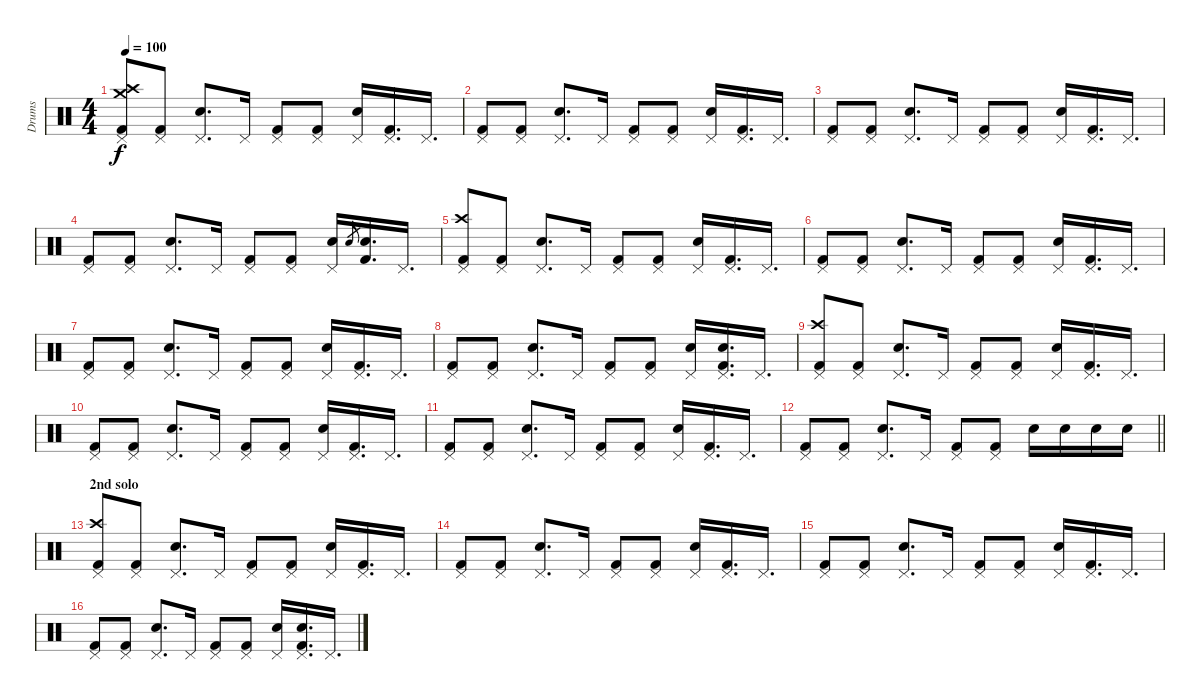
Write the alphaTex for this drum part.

\track ("Drums" "Drums") {instrument percussion}
\staff
\articulation defaults
\ts (4 4)
\tempo 100
\clef neutral
\ks c
("Pedal Hi-Hat (hit)" "Crash high (hit)" "Crash medium (hit)" "Kick (hit) 2").8{dy f} ("Pedal Hi-Hat (hit)" "Kick (hit) 2").8 ("Electric Snare (hit)" "Pedal Hi-Hat (hit)").8{d} "Pedal Hi-Hat (hit)".16 ("Pedal Hi-Hat (hit)" "Kick (hit) 2").8 ("Pedal Hi-Hat (hit)" "Kick (hit) 2").8 ("Electric Snare (hit)" "Pedal Hi-Hat (hit)").16 ("Pedal Hi-Hat (hit)" "Kick (hit) 2").16{d} "Pedal Hi-Hat (hit)".16{d} |
("Pedal Hi-Hat (hit)" "Kick (hit) 2").8 ("Pedal Hi-Hat (hit)" "Kick (hit) 2").8 ("Electric Snare (hit)" "Pedal Hi-Hat (hit)").8{d} "Pedal Hi-Hat (hit)".16 ("Pedal Hi-Hat (hit)" "Kick (hit) 2").8 ("Pedal Hi-Hat (hit)" "Kick (hit) 2").8 ("Electric Snare (hit)" "Pedal Hi-Hat (hit)").16 ("Pedal Hi-Hat (hit)" "Kick (hit) 2").16{d} "Pedal Hi-Hat (hit)".16{d} |
("Pedal Hi-Hat (hit)" "Kick (hit) 2").8 ("Pedal Hi-Hat (hit)" "Kick (hit) 2").8 ("Electric Snare (hit)" "Pedal Hi-Hat (hit)").8{d} "Pedal Hi-Hat (hit)".16 ("Pedal Hi-Hat (hit)" "Kick (hit) 2").8 ("Pedal Hi-Hat (hit)" "Kick (hit) 2").8 ("Electric Snare (hit)" "Pedal Hi-Hat (hit)").16 ("Pedal Hi-Hat (hit)" "Kick (hit) 2").16{d} "Pedal Hi-Hat (hit)".16{d} |
("Pedal Hi-Hat (hit)" "Kick (hit) 2").8 ("Pedal Hi-Hat (hit)" "Kick (hit) 2").8 ("Electric Snare (hit)" "Pedal Hi-Hat (hit)").8{d} "Pedal Hi-Hat (hit)".16 ("Pedal Hi-Hat (hit)" "Kick (hit) 2").8 ("Pedal Hi-Hat (hit)" "Kick (hit) 2").8 ("Electric Snare (hit)" "Pedal Hi-Hat (hit)").16 "Electric Snare (hit)".8{gr} ("Electric Snare (hit)" "Kick (hit) 2").16{d} "Pedal Hi-Hat (hit)".16{d} |
("Pedal Hi-Hat (hit)" "Crash high (hit)" "Kick (hit) 2").8 ("Pedal Hi-Hat (hit)" "Kick (hit) 2").8 ("Electric Snare (hit)" "Pedal Hi-Hat (hit)").8{d} "Pedal Hi-Hat (hit)".16 ("Pedal Hi-Hat (hit)" "Kick (hit) 2").8 ("Pedal Hi-Hat (hit)" "Kick (hit) 2").8 ("Electric Snare (hit)" "Pedal Hi-Hat (hit)").16 ("Pedal Hi-Hat (hit)" "Kick (hit) 2").16{d} "Pedal Hi-Hat (hit)".16{d} |
("Pedal Hi-Hat (hit)" "Kick (hit) 2").8 ("Pedal Hi-Hat (hit)" "Kick (hit) 2").8 ("Electric Snare (hit)" "Pedal Hi-Hat (hit)").8{d} "Pedal Hi-Hat (hit)".16 ("Pedal Hi-Hat (hit)" "Kick (hit) 2").8 ("Pedal Hi-Hat (hit)" "Kick (hit) 2").8 ("Electric Snare (hit)" "Pedal Hi-Hat (hit)").16 ("Pedal Hi-Hat (hit)" "Kick (hit) 2").16{d} "Pedal Hi-Hat (hit)".16{d} |
("Pedal Hi-Hat (hit)" "Kick (hit) 2").8 ("Pedal Hi-Hat (hit)" "Kick (hit) 2").8 ("Electric Snare (hit)" "Pedal Hi-Hat (hit)").8{d} "Pedal Hi-Hat (hit)".16 ("Pedal Hi-Hat (hit)" "Kick (hit) 2").8 ("Pedal Hi-Hat (hit)" "Kick (hit) 2").8 ("Electric Snare (hit)" "Pedal Hi-Hat (hit)").16 ("Pedal Hi-Hat (hit)" "Kick (hit) 2").16{d} "Pedal Hi-Hat (hit)".16{d} |
("Pedal Hi-Hat (hit)" "Kick (hit) 2").8 ("Pedal Hi-Hat (hit)" "Kick (hit) 2").8 ("Electric Snare (hit)" "Pedal Hi-Hat (hit)").8{d} "Pedal Hi-Hat (hit)".16 ("Pedal Hi-Hat (hit)" "Kick (hit) 2").8 ("Pedal Hi-Hat (hit)" "Kick (hit) 2").8 ("Electric Snare (hit)" "Pedal Hi-Hat (hit)").16 ("Pedal Hi-Hat (hit)" "Electric Snare (hit)" "Kick (hit) 2").16{d} "Pedal Hi-Hat (hit)".16{d} |
("Pedal Hi-Hat (hit)" "Crash high (hit)" "Kick (hit) 2").8 ("Pedal Hi-Hat (hit)" "Kick (hit) 2").8 ("Electric Snare (hit)" "Pedal Hi-Hat (hit)").8{d} "Pedal Hi-Hat (hit)".16 ("Pedal Hi-Hat (hit)" "Kick (hit) 2").8 ("Pedal Hi-Hat (hit)" "Kick (hit) 2").8 ("Electric Snare (hit)" "Pedal Hi-Hat (hit)").16 ("Pedal Hi-Hat (hit)" "Kick (hit) 2").16{d} "Pedal Hi-Hat (hit)".16{d} |
("Pedal Hi-Hat (hit)" "Kick (hit) 2").8 ("Pedal Hi-Hat (hit)" "Kick (hit) 2").8 ("Electric Snare (hit)" "Pedal Hi-Hat (hit)").8{d} "Pedal Hi-Hat (hit)".16 ("Pedal Hi-Hat (hit)" "Kick (hit) 2").8 ("Pedal Hi-Hat (hit)" "Kick (hit) 2").8 ("Electric Snare (hit)" "Pedal Hi-Hat (hit)").16 ("Pedal Hi-Hat (hit)" "Kick (hit) 2").16{d} "Pedal Hi-Hat (hit)".16{d} |
("Pedal Hi-Hat (hit)" "Kick (hit) 2").8 ("Pedal Hi-Hat (hit)" "Kick (hit) 2").8 ("Electric Snare (hit)" "Pedal Hi-Hat (hit)").8{d} "Pedal Hi-Hat (hit)".16 ("Pedal Hi-Hat (hit)" "Kick (hit) 2").8 ("Pedal Hi-Hat (hit)" "Kick (hit) 2").8 ("Electric Snare (hit)" "Pedal Hi-Hat (hit)").16 ("Pedal Hi-Hat (hit)" "Kick (hit) 2").16{d} "Pedal Hi-Hat (hit)".16{d} |
\barLineRight lightlight
("Pedal Hi-Hat (hit)" "Kick (hit) 2").8 ("Pedal Hi-Hat (hit)" "Kick (hit) 2").8 ("Electric Snare (hit)" "Pedal Hi-Hat (hit)").8{d} "Pedal Hi-Hat (hit)".16 ("Pedal Hi-Hat (hit)" "Kick (hit) 2").8 ("Pedal Hi-Hat (hit)" "Kick (hit) 2").8 "Electric Snare (hit)".16 "Electric Snare (hit)".16 "Electric Snare (hit)".16 "Electric Snare (hit)".16 |
\section ("" "2nd solo")
("Pedal Hi-Hat (hit)" "Crash high (hit)" "Kick (hit) 2").8 ("Pedal Hi-Hat (hit)" "Kick (hit) 2").8 ("Electric Snare (hit)" "Pedal Hi-Hat (hit)").8{d} "Pedal Hi-Hat (hit)".16 ("Pedal Hi-Hat (hit)" "Kick (hit) 2").8 ("Pedal Hi-Hat (hit)" "Kick (hit) 2").8 ("Electric Snare (hit)" "Pedal Hi-Hat (hit)").16 ("Pedal Hi-Hat (hit)" "Kick (hit) 2").16{d} "Pedal Hi-Hat (hit)".16{d} |
("Pedal Hi-Hat (hit)" "Kick (hit) 2").8 ("Pedal Hi-Hat (hit)" "Kick (hit) 2").8 ("Electric Snare (hit)" "Pedal Hi-Hat (hit)").8{d} "Pedal Hi-Hat (hit)".16 ("Pedal Hi-Hat (hit)" "Kick (hit) 2").8 ("Pedal Hi-Hat (hit)" "Kick (hit) 2").8 ("Electric Snare (hit)" "Pedal Hi-Hat (hit)").16 ("Pedal Hi-Hat (hit)" "Kick (hit) 2").16{d} "Pedal Hi-Hat (hit)".16{d} |
("Pedal Hi-Hat (hit)" "Kick (hit) 2").8 ("Pedal Hi-Hat (hit)" "Kick (hit) 2").8 ("Electric Snare (hit)" "Pedal Hi-Hat (hit)").8{d} "Pedal Hi-Hat (hit)".16 ("Pedal Hi-Hat (hit)" "Kick (hit) 2").8 ("Pedal Hi-Hat (hit)" "Kick (hit) 2").8 ("Electric Snare (hit)" "Pedal Hi-Hat (hit)").16 ("Pedal Hi-Hat (hit)" "Kick (hit) 2").16{d} "Pedal Hi-Hat (hit)".16{d} |
("Pedal Hi-Hat (hit)" "Kick (hit) 2").8 ("Pedal Hi-Hat (hit)" "Kick (hit) 2").8 ("Electric Snare (hit)" "Pedal Hi-Hat (hit)").8{d} "Pedal Hi-Hat (hit)".16 ("Pedal Hi-Hat (hit)" "Kick (hit) 2").8 ("Pedal Hi-Hat (hit)" "Kick (hit) 2").8 ("Electric Snare (hit)" "Pedal Hi-Hat (hit)").16 ("Pedal Hi-Hat (hit)" "Electric Snare (hit)" "Kick (hit) 2").16{d} "Pedal Hi-Hat (hit)".16{d}
